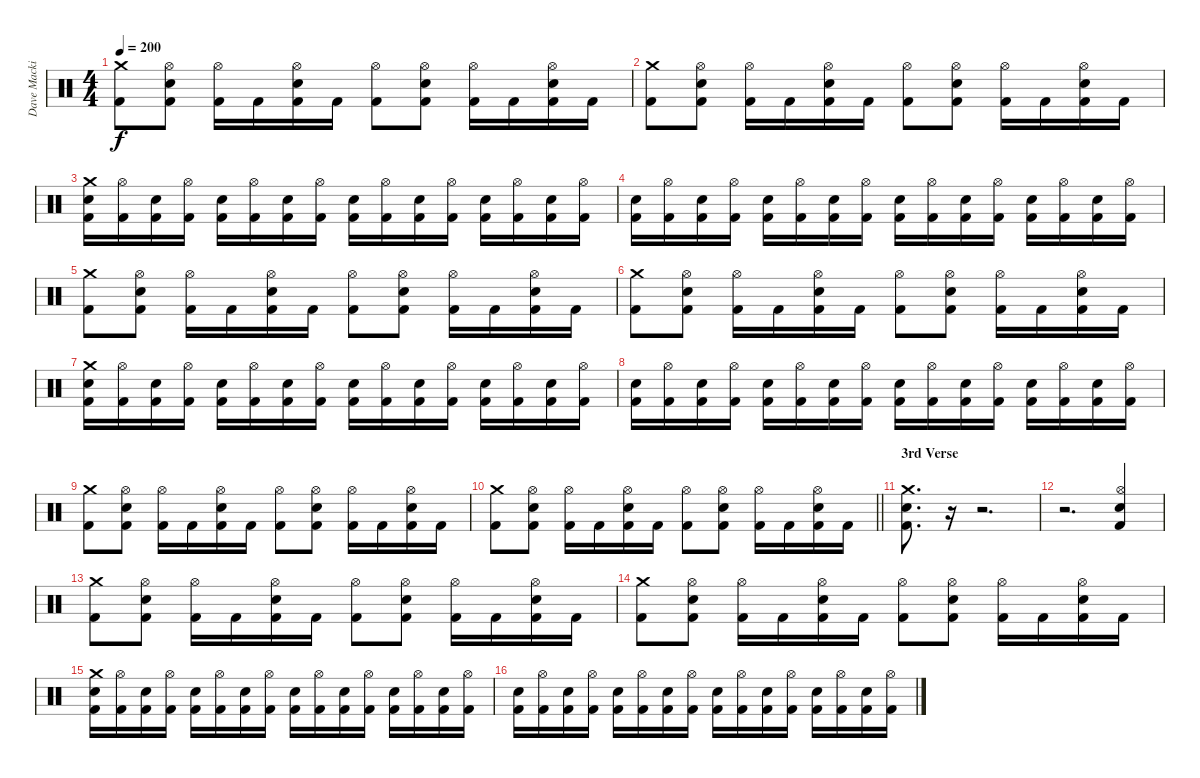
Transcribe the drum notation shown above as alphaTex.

\track ("Dave Mackintosh | Drums" "Dave Macki") {instrument percussion}
\staff {score}
\articulation defaults
\ts (4 4)
\tempo 200
\clef neutral
\ks c
("Crash medium (hit)" "Kick (hit) 2").8{dy f} ("Hi-Hat (open)" "Snare (hit) 2" "Kick (hit) 2").8 ("Hi-Hat (open)" "Kick (hit) 2").16 "Kick (hit) 2".16 ("Hi-Hat (open)" "Snare (hit) 2" "Kick (hit) 2").16 "Kick (hit) 2".16 ("Hi-Hat (open)" "Kick (hit) 2").8 ("Hi-Hat (open)" "Snare (hit) 2" "Kick (hit) 2").8 ("Hi-Hat (open)" "Kick (hit) 2").16 "Kick (hit) 2".16 ("Hi-Hat (open)" "Snare (hit) 2" "Kick (hit) 2").16 "Kick (hit) 2".16 |
("Crash medium (hit)" "Kick (hit) 2").8 ("Hi-Hat (open)" "Snare (hit) 2" "Kick (hit) 2").8 ("Hi-Hat (open)" "Kick (hit) 2").16 "Kick (hit) 2".16 ("Hi-Hat (open)" "Snare (hit) 2" "Kick (hit) 2").16 "Kick (hit) 2".16 ("Hi-Hat (open)" "Kick (hit) 2").8 ("Hi-Hat (open)" "Snare (hit) 2" "Kick (hit) 2").8 ("Hi-Hat (open)" "Kick (hit) 2").16 "Kick (hit) 2".16 ("Hi-Hat (open)" "Snare (hit) 2" "Kick (hit) 2").16 "Kick (hit) 2".16 |
("Crash medium (hit)" "Snare (hit) 2" "Kick (hit) 2").16 ("Hi-Hat (open)" "Kick (hit) 2").16 ("Snare (hit) 2" "Kick (hit) 2").16 ("Hi-Hat (open)" "Kick (hit) 2").16 ("Snare (hit) 2" "Kick (hit) 2").16 ("Hi-Hat (open)" "Kick (hit) 2").16 ("Snare (hit) 2" "Kick (hit) 2").16 ("Hi-Hat (open)" "Kick (hit) 2").16 ("Snare (hit) 2" "Kick (hit) 2").16 ("Hi-Hat (open)" "Kick (hit) 2").16 ("Snare (hit) 2" "Kick (hit) 2").16 ("Hi-Hat (open)" "Kick (hit) 2").16 ("Snare (hit) 2" "Kick (hit) 2").16 ("Hi-Hat (open)" "Kick (hit) 2").16 ("Snare (hit) 2" "Kick (hit) 2").16 ("Hi-Hat (open)" "Kick (hit) 2").16 |
("Snare (hit) 2" "Kick (hit) 2").16 ("Hi-Hat (open)" "Kick (hit) 2").16 ("Snare (hit) 2" "Kick (hit) 2").16 ("Hi-Hat (open)" "Kick (hit) 2").16 ("Snare (hit) 2" "Kick (hit) 2").16 ("Hi-Hat (open)" "Kick (hit) 2").16 ("Snare (hit) 2" "Kick (hit) 2").16 ("Hi-Hat (open)" "Kick (hit) 2").16 ("Snare (hit) 2" "Kick (hit) 2").16 ("Hi-Hat (open)" "Kick (hit) 2").16 ("Snare (hit) 2" "Kick (hit) 2").16 ("Hi-Hat (open)" "Kick (hit) 2").16 ("Snare (hit) 2" "Kick (hit) 2").16 ("Hi-Hat (open)" "Kick (hit) 2").16 ("Snare (hit) 2" "Kick (hit) 2").16 ("Hi-Hat (open)" "Kick (hit) 2").16 |
("Crash medium (hit)" "Kick (hit) 2").8 ("Hi-Hat (open)" "Snare (hit) 2" "Kick (hit) 2").8 ("Hi-Hat (open)" "Kick (hit) 2").16 "Kick (hit) 2".16 ("Hi-Hat (open)" "Snare (hit) 2" "Kick (hit) 2").16 "Kick (hit) 2".16 ("Hi-Hat (open)" "Kick (hit) 2").8 ("Hi-Hat (open)" "Snare (hit) 2" "Kick (hit) 2").8 ("Hi-Hat (open)" "Kick (hit) 2").16 "Kick (hit) 2".16 ("Hi-Hat (open)" "Snare (hit) 2" "Kick (hit) 2").16 "Kick (hit) 2".16 |
("Crash medium (hit)" "Kick (hit) 2").8 ("Hi-Hat (open)" "Snare (hit) 2" "Kick (hit) 2").8 ("Hi-Hat (open)" "Kick (hit) 2").16 "Kick (hit) 2".16 ("Hi-Hat (open)" "Snare (hit) 2" "Kick (hit) 2").16 "Kick (hit) 2".16 ("Hi-Hat (open)" "Kick (hit) 2").8 ("Hi-Hat (open)" "Snare (hit) 2" "Kick (hit) 2").8 ("Hi-Hat (open)" "Kick (hit) 2").16 "Kick (hit) 2".16 ("Hi-Hat (open)" "Snare (hit) 2" "Kick (hit) 2").16 "Kick (hit) 2".16 |
("Crash medium (hit)" "Snare (hit) 2" "Kick (hit) 2").16 ("Hi-Hat (open)" "Kick (hit) 2").16 ("Snare (hit) 2" "Kick (hit) 2").16 ("Hi-Hat (open)" "Kick (hit) 2").16 ("Snare (hit) 2" "Kick (hit) 2").16 ("Hi-Hat (open)" "Kick (hit) 2").16 ("Snare (hit) 2" "Kick (hit) 2").16 ("Hi-Hat (open)" "Kick (hit) 2").16 ("Snare (hit) 2" "Kick (hit) 2").16 ("Hi-Hat (open)" "Kick (hit) 2").16 ("Snare (hit) 2" "Kick (hit) 2").16 ("Hi-Hat (open)" "Kick (hit) 2").16 ("Snare (hit) 2" "Kick (hit) 2").16 ("Hi-Hat (open)" "Kick (hit) 2").16 ("Snare (hit) 2" "Kick (hit) 2").16 ("Hi-Hat (open)" "Kick (hit) 2").16 |
("Snare (hit) 2" "Kick (hit) 2").16 ("Hi-Hat (open)" "Kick (hit) 2").16 ("Snare (hit) 2" "Kick (hit) 2").16 ("Hi-Hat (open)" "Kick (hit) 2").16 ("Snare (hit) 2" "Kick (hit) 2").16 ("Hi-Hat (open)" "Kick (hit) 2").16 ("Snare (hit) 2" "Kick (hit) 2").16 ("Hi-Hat (open)" "Kick (hit) 2").16 ("Snare (hit) 2" "Kick (hit) 2").16 ("Hi-Hat (open)" "Kick (hit) 2").16 ("Snare (hit) 2" "Kick (hit) 2").16 ("Hi-Hat (open)" "Kick (hit) 2").16 ("Snare (hit) 2" "Kick (hit) 2").16 ("Hi-Hat (open)" "Kick (hit) 2").16 ("Snare (hit) 2" "Kick (hit) 2").16 ("Hi-Hat (open)" "Kick (hit) 2").16 |
("Crash medium (hit)" "Kick (hit) 2").8 ("Hi-Hat (open)" "Snare (hit) 2" "Kick (hit) 2").8 ("Hi-Hat (open)" "Kick (hit) 2").16 "Kick (hit) 2".16 ("Hi-Hat (open)" "Snare (hit) 2" "Kick (hit) 2").16 "Kick (hit) 2".16 ("Hi-Hat (open)" "Kick (hit) 2").8 ("Hi-Hat (open)" "Snare (hit) 2" "Kick (hit) 2").8 ("Hi-Hat (open)" "Kick (hit) 2").16 "Kick (hit) 2".16 ("Hi-Hat (open)" "Snare (hit) 2" "Kick (hit) 2").16 "Kick (hit) 2".16 |
\barLineRight lightlight
("Crash medium (hit)" "Kick (hit) 2").8 ("Hi-Hat (open)" "Snare (hit) 2" "Kick (hit) 2").8 ("Hi-Hat (open)" "Kick (hit) 2").16 "Kick (hit) 2".16 ("Hi-Hat (open)" "Snare (hit) 2" "Kick (hit) 2").16 "Kick (hit) 2".16 ("Hi-Hat (open)" "Kick (hit) 2").8 ("Hi-Hat (open)" "Snare (hit) 2" "Kick (hit) 2").8 ("Hi-Hat (open)" "Kick (hit) 2").16 "Kick (hit) 2".16 ("Hi-Hat (open)" "Snare (hit) 2" "Kick (hit) 2").16 "Kick (hit) 2".16 |
\section ("" "3rd Verse")
("Crash medium (hit)" "Snare (hit) 2" "Kick (hit) 2").8{d} r.16 r.2{d} |
r.2{d} ("Hi-Hat (open)" "Snare (hit) 2" "Kick (hit) 2").4 |
("Crash medium (hit)" "Kick (hit) 2").8 ("Hi-Hat (open)" "Snare (hit) 2" "Kick (hit) 2").8 ("Hi-Hat (open)" "Kick (hit) 2").16 "Kick (hit) 2".16 ("Hi-Hat (open)" "Snare (hit) 2" "Kick (hit) 2").16 "Kick (hit) 2".16 ("Hi-Hat (open)" "Kick (hit) 2").8 ("Hi-Hat (open)" "Snare (hit) 2" "Kick (hit) 2").8 ("Hi-Hat (open)" "Kick (hit) 2").16 "Kick (hit) 2".16 ("Hi-Hat (open)" "Snare (hit) 2" "Kick (hit) 2").16 "Kick (hit) 2".16 |
("Crash medium (hit)" "Kick (hit) 2").8 ("Hi-Hat (open)" "Snare (hit) 2" "Kick (hit) 2").8 ("Hi-Hat (open)" "Kick (hit) 2").16 "Kick (hit) 2".16 ("Hi-Hat (open)" "Snare (hit) 2" "Kick (hit) 2").16 "Kick (hit) 2".16 ("Hi-Hat (open)" "Kick (hit) 2").8 ("Hi-Hat (open)" "Snare (hit) 2" "Kick (hit) 2").8 ("Hi-Hat (open)" "Kick (hit) 2").16 "Kick (hit) 2".16 ("Hi-Hat (open)" "Snare (hit) 2" "Kick (hit) 2").16 "Kick (hit) 2".16 |
("Crash medium (hit)" "Snare (hit) 2" "Kick (hit) 2").16 ("Hi-Hat (open)" "Kick (hit) 2").16 ("Snare (hit) 2" "Kick (hit) 2").16 ("Hi-Hat (open)" "Kick (hit) 2").16 ("Snare (hit) 2" "Kick (hit) 2").16 ("Hi-Hat (open)" "Kick (hit) 2").16 ("Snare (hit) 2" "Kick (hit) 2").16 ("Hi-Hat (open)" "Kick (hit) 2").16 ("Snare (hit) 2" "Kick (hit) 2").16 ("Hi-Hat (open)" "Kick (hit) 2").16 ("Snare (hit) 2" "Kick (hit) 2").16 ("Hi-Hat (open)" "Kick (hit) 2").16 ("Snare (hit) 2" "Kick (hit) 2").16 ("Hi-Hat (open)" "Kick (hit) 2").16 ("Snare (hit) 2" "Kick (hit) 2").16 ("Hi-Hat (open)" "Kick (hit) 2").16 |
("Snare (hit) 2" "Kick (hit) 2").16 ("Hi-Hat (open)" "Kick (hit) 2").16 ("Snare (hit) 2" "Kick (hit) 2").16 ("Hi-Hat (open)" "Kick (hit) 2").16 ("Snare (hit) 2" "Kick (hit) 2").16 ("Hi-Hat (open)" "Kick (hit) 2").16 ("Snare (hit) 2" "Kick (hit) 2").16 ("Hi-Hat (open)" "Kick (hit) 2").16 ("Snare (hit) 2" "Kick (hit) 2").16 ("Hi-Hat (open)" "Kick (hit) 2").16 ("Snare (hit) 2" "Kick (hit) 2").16 ("Hi-Hat (open)" "Kick (hit) 2").16 ("Snare (hit) 2" "Kick (hit) 2").16 ("Hi-Hat (open)" "Kick (hit) 2").16 ("Snare (hit) 2" "Kick (hit) 2").16 ("Hi-Hat (open)" "Kick (hit) 2").16
